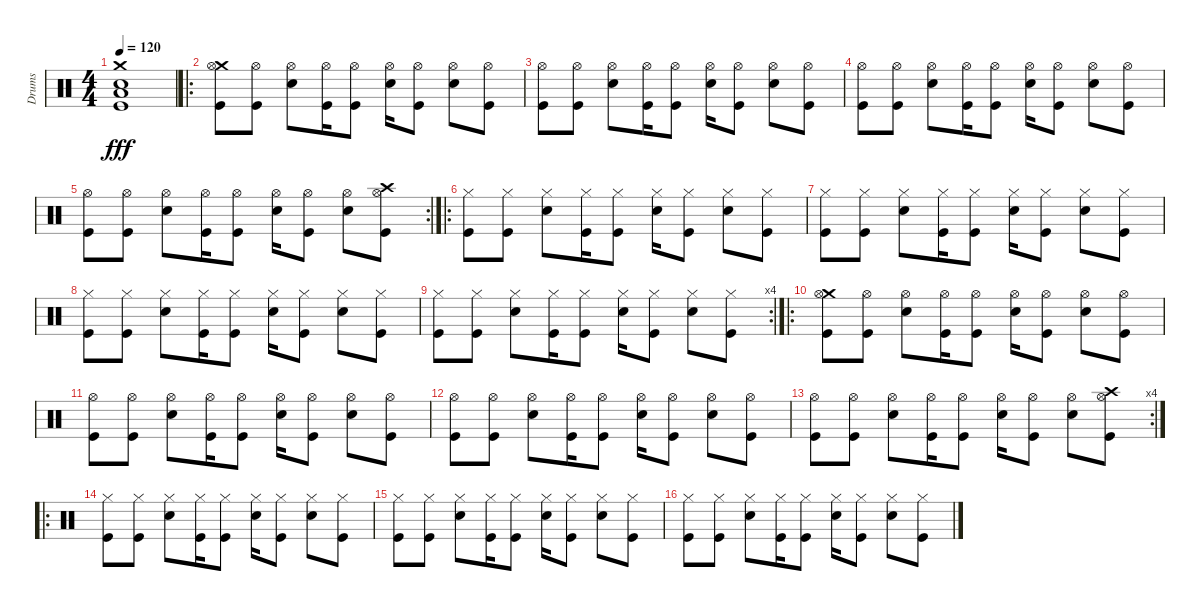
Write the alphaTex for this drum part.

\track ("Drums" "Drums") {instrument percussion}
\staff {score}
\articulation defaults
\ts (4 4)
\tempo 120
\clef neutral
\ks c
("Crash medium (hit)" "Low Floor Tom (hit)" "Snare (hit) 2" "Kick (hit)").1{dy fff} |
\ro
("Crash medium (hit)" "Kick (hit)" "Hi-Hat (open)").8 ("Kick (hit)" "Hi-Hat (open)").8 ("Snare (hit) 2" "Hi-Hat (open)").8 ("Kick (hit)" "Hi-Hat (open)").16 ("Kick (hit)" "Hi-Hat (open)").8 ("Snare (hit) 2" "Hi-Hat (open)").16 ("Kick (hit)" "Hi-Hat (open)").8 ("Snare (hit) 2" "Hi-Hat (open)").8 ("Kick (hit)" "Hi-Hat (open)").8 |
("Kick (hit)" "Hi-Hat (open)").8 ("Kick (hit)" "Hi-Hat (open)").8 ("Snare (hit) 2" "Hi-Hat (open)").8 ("Kick (hit)" "Hi-Hat (open)").16 ("Kick (hit)" "Hi-Hat (open)").8 ("Snare (hit) 2" "Hi-Hat (open)").16 ("Kick (hit)" "Hi-Hat (open)").8 ("Snare (hit) 2" "Hi-Hat (open)").8 ("Kick (hit)" "Hi-Hat (open)").8 |
("Kick (hit)" "Hi-Hat (open)").8 ("Kick (hit)" "Hi-Hat (open)").8 ("Snare (hit) 2" "Hi-Hat (open)").8 ("Kick (hit)" "Hi-Hat (open)").16 ("Kick (hit)" "Hi-Hat (open)").8 ("Snare (hit) 2" "Hi-Hat (open)").16 ("Kick (hit)" "Hi-Hat (open)").8 ("Snare (hit) 2" "Hi-Hat (open)").8 ("Kick (hit)" "Hi-Hat (open)").8 |
\rc 2
("Kick (hit)" "Hi-Hat (open)").8 ("Kick (hit)" "Hi-Hat (open)").8 ("Snare (hit) 2" "Hi-Hat (open)").8 ("Kick (hit)" "Hi-Hat (open)").16 ("Kick (hit)" "Hi-Hat (open)").8 ("Snare (hit) 2" "Hi-Hat (open)").16 ("Kick (hit)" "Hi-Hat (open)").8 ("Snare (hit) 2" "Hi-Hat (open)").8 ("Crash high (hit)" "Kick (hit)" "Hi-Hat (open)").8 |
\ro
("Kick (hit)" "Hi-Hat (closed)").8 ("Kick (hit)" "Hi-Hat (closed)").8 ("Snare (hit) 2" "Hi-Hat (closed)").8 ("Kick (hit)" "Hi-Hat (closed)").16 ("Kick (hit)" "Hi-Hat (closed)").8 ("Snare (hit) 2" "Hi-Hat (closed)").16 ("Kick (hit)" "Hi-Hat (closed)").8 ("Snare (hit) 2" "Hi-Hat (closed)").8 ("Kick (hit)" "Hi-Hat (closed)").8 |
("Kick (hit)" "Hi-Hat (closed)").8 ("Kick (hit)" "Hi-Hat (closed)").8 ("Snare (hit) 2" "Hi-Hat (closed)").8 ("Kick (hit)" "Hi-Hat (closed)").16 ("Kick (hit)" "Hi-Hat (closed)").8 ("Snare (hit) 2" "Hi-Hat (closed)").16 ("Kick (hit)" "Hi-Hat (closed)").8 ("Snare (hit) 2" "Hi-Hat (closed)").8 ("Kick (hit)" "Hi-Hat (closed)").8 |
("Kick (hit)" "Hi-Hat (closed)").8 ("Kick (hit)" "Hi-Hat (closed)").8 ("Snare (hit) 2" "Hi-Hat (closed)").8 ("Kick (hit)" "Hi-Hat (closed)").16 ("Kick (hit)" "Hi-Hat (closed)").8 ("Snare (hit) 2" "Hi-Hat (closed)").16 ("Kick (hit)" "Hi-Hat (closed)").8 ("Snare (hit) 2" "Hi-Hat (closed)").8 ("Kick (hit)" "Hi-Hat (closed)").8 |
\rc 4
("Kick (hit)" "Hi-Hat (closed)").8 ("Kick (hit)" "Hi-Hat (closed)").8 ("Snare (hit) 2" "Hi-Hat (closed)").8 ("Kick (hit)" "Hi-Hat (closed)").16 ("Kick (hit)" "Hi-Hat (closed)").8 ("Snare (hit) 2" "Hi-Hat (closed)").16 ("Kick (hit)" "Hi-Hat (closed)").8 ("Snare (hit) 2" "Hi-Hat (closed)").8 ("Kick (hit)" "Hi-Hat (closed)").8 |
\ro
("Crash medium (hit)" "Kick (hit)" "Hi-Hat (open)").8 ("Kick (hit)" "Hi-Hat (open)").8 ("Snare (hit) 2" "Hi-Hat (open)").8 ("Kick (hit)" "Hi-Hat (open)").16 ("Kick (hit)" "Hi-Hat (open)").8 ("Snare (hit) 2" "Hi-Hat (open)").16 ("Kick (hit)" "Hi-Hat (open)").8 ("Snare (hit) 2" "Hi-Hat (open)").8 ("Kick (hit)" "Hi-Hat (open)").8 |
("Kick (hit)" "Hi-Hat (open)").8 ("Kick (hit)" "Hi-Hat (open)").8 ("Snare (hit) 2" "Hi-Hat (open)").8 ("Kick (hit)" "Hi-Hat (open)").16 ("Kick (hit)" "Hi-Hat (open)").8 ("Snare (hit) 2" "Hi-Hat (open)").16 ("Kick (hit)" "Hi-Hat (open)").8 ("Snare (hit) 2" "Hi-Hat (open)").8 ("Kick (hit)" "Hi-Hat (open)").8 |
("Kick (hit)" "Hi-Hat (open)").8 ("Kick (hit)" "Hi-Hat (open)").8 ("Snare (hit) 2" "Hi-Hat (open)").8 ("Kick (hit)" "Hi-Hat (open)").16 ("Kick (hit)" "Hi-Hat (open)").8 ("Snare (hit) 2" "Hi-Hat (open)").16 ("Kick (hit)" "Hi-Hat (open)").8 ("Snare (hit) 2" "Hi-Hat (open)").8 ("Kick (hit)" "Hi-Hat (open)").8 |
\rc 4
("Kick (hit)" "Hi-Hat (open)").8 ("Kick (hit)" "Hi-Hat (open)").8 ("Snare (hit) 2" "Hi-Hat (open)").8 ("Kick (hit)" "Hi-Hat (open)").16 ("Kick (hit)" "Hi-Hat (open)").8 ("Snare (hit) 2" "Hi-Hat (open)").16 ("Kick (hit)" "Hi-Hat (open)").8 ("Snare (hit) 2" "Hi-Hat (open)").8 ("Crash high (hit)" "Kick (hit)" "Hi-Hat (open)").8 |
\ro
("Kick (hit)" "Hi-Hat (closed)").8 ("Kick (hit)" "Hi-Hat (closed)").8 ("Snare (hit) 2" "Hi-Hat (closed)").8 ("Kick (hit)" "Hi-Hat (closed)").16 ("Kick (hit)" "Hi-Hat (closed)").8 ("Snare (hit) 2" "Hi-Hat (closed)").16 ("Kick (hit)" "Hi-Hat (closed)").8 ("Snare (hit) 2" "Hi-Hat (closed)").8 ("Kick (hit)" "Hi-Hat (closed)").8 |
("Kick (hit)" "Hi-Hat (closed)").8 ("Kick (hit)" "Hi-Hat (closed)").8 ("Snare (hit) 2" "Hi-Hat (closed)").8 ("Kick (hit)" "Hi-Hat (closed)").16 ("Kick (hit)" "Hi-Hat (closed)").8 ("Snare (hit) 2" "Hi-Hat (closed)").16 ("Kick (hit)" "Hi-Hat (closed)").8 ("Snare (hit) 2" "Hi-Hat (closed)").8 ("Kick (hit)" "Hi-Hat (closed)").8 |
("Kick (hit)" "Hi-Hat (closed)").8 ("Kick (hit)" "Hi-Hat (closed)").8 ("Snare (hit) 2" "Hi-Hat (closed)").8 ("Kick (hit)" "Hi-Hat (closed)").16 ("Kick (hit)" "Hi-Hat (closed)").8 ("Snare (hit) 2" "Hi-Hat (closed)").16 ("Kick (hit)" "Hi-Hat (closed)").8 ("Snare (hit) 2" "Hi-Hat (closed)").8 ("Kick (hit)" "Hi-Hat (closed)").8
